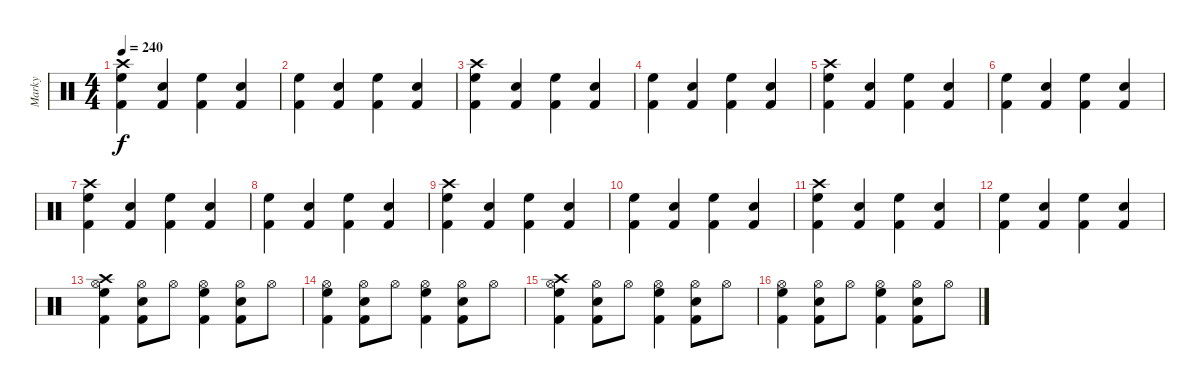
\track ("Marky" "Marky") {instrument percussion}
\staff {score}
\articulation defaults
\ts (4 4)
\tempo 240
\clef neutral
\ks c
("Crash high (hit)" "High Floor Tom (hit)" "Kick (hit) 2").4{dy f} ("Electric Snare (hit)" "Kick (hit) 2").4 ("High Floor Tom (hit)" "Kick (hit) 2").4 ("Electric Snare (hit)" "Kick (hit) 2").4 |
("High Floor Tom (hit)" "Kick (hit) 2").4 ("Electric Snare (hit)" "Kick (hit) 2").4 ("High Floor Tom (hit)" "Kick (hit) 2").4 ("Electric Snare (hit)" "Kick (hit) 2").4 |
("Crash high (hit)" "High Floor Tom (hit)" "Kick (hit) 2").4 ("Electric Snare (hit)" "Kick (hit) 2").4 ("High Floor Tom (hit)" "Kick (hit) 2").4 ("Electric Snare (hit)" "Kick (hit) 2").4 |
("High Floor Tom (hit)" "Kick (hit) 2").4 ("Electric Snare (hit)" "Kick (hit) 2").4 ("High Floor Tom (hit)" "Kick (hit) 2").4 ("Electric Snare (hit)" "Kick (hit) 2").4 |
("Crash high (hit)" "High Floor Tom (hit)" "Kick (hit) 2").4 ("Electric Snare (hit)" "Kick (hit) 2").4 ("High Floor Tom (hit)" "Kick (hit) 2").4 ("Electric Snare (hit)" "Kick (hit) 2").4 |
("High Floor Tom (hit)" "Kick (hit) 2").4 ("Electric Snare (hit)" "Kick (hit) 2").4 ("High Floor Tom (hit)" "Kick (hit) 2").4 ("Electric Snare (hit)" "Kick (hit) 2").4 |
("Crash high (hit)" "High Floor Tom (hit)" "Kick (hit) 2").4 ("Electric Snare (hit)" "Kick (hit) 2").4 ("High Floor Tom (hit)" "Kick (hit) 2").4 ("Electric Snare (hit)" "Kick (hit) 2").4 |
("High Floor Tom (hit)" "Kick (hit) 2").4 ("Electric Snare (hit)" "Kick (hit) 2").4 ("High Floor Tom (hit)" "Kick (hit) 2").4 ("Electric Snare (hit)" "Kick (hit) 2").4 |
("Crash high (hit)" "High Floor Tom (hit)" "Kick (hit) 2").4 ("Electric Snare (hit)" "Kick (hit) 2").4 ("High Floor Tom (hit)" "Kick (hit) 2").4 ("Electric Snare (hit)" "Kick (hit) 2").4 |
("High Floor Tom (hit)" "Kick (hit) 2").4 ("Electric Snare (hit)" "Kick (hit) 2").4 ("High Floor Tom (hit)" "Kick (hit) 2").4 ("Electric Snare (hit)" "Kick (hit) 2").4 |
("Crash high (hit)" "High Floor Tom (hit)" "Kick (hit) 2").4 ("Electric Snare (hit)" "Kick (hit) 2").4 ("High Floor Tom (hit)" "Kick (hit) 2").4 ("Electric Snare (hit)" "Kick (hit) 2").4 |
("High Floor Tom (hit)" "Kick (hit) 2").4 ("Electric Snare (hit)" "Kick (hit) 2").4 ("High Floor Tom (hit)" "Kick (hit) 2").4 ("Electric Snare (hit)" "Kick (hit) 2").4 |
("Crash high (hit)" "Hi-Hat (open)" "High Floor Tom (hit)" "Kick (hit) 2").4 ("Hi-Hat (open)" "Electric Snare (hit)" "Kick (hit) 2").8 "Hi-Hat (open)".8 ("Hi-Hat (open)" "High Floor Tom (hit)" "Kick (hit) 2").4 ("Hi-Hat (open)" "Electric Snare (hit)" "Kick (hit) 2").8 "Hi-Hat (open)".8 |
("Hi-Hat (open)" "High Floor Tom (hit)" "Kick (hit) 2").4 ("Hi-Hat (open)" "Electric Snare (hit)" "Kick (hit) 2").8 "Hi-Hat (open)".8 ("Hi-Hat (open)" "High Floor Tom (hit)" "Kick (hit) 2").4 ("Hi-Hat (open)" "Electric Snare (hit)" "Kick (hit) 2").8 "Hi-Hat (open)".8 |
("Crash high (hit)" "Hi-Hat (open)" "High Floor Tom (hit)" "Kick (hit) 2").4 ("Hi-Hat (open)" "Electric Snare (hit)" "Kick (hit) 2").8 "Hi-Hat (open)".8 ("Hi-Hat (open)" "High Floor Tom (hit)" "Kick (hit) 2").4 ("Hi-Hat (open)" "Electric Snare (hit)" "Kick (hit) 2").8 "Hi-Hat (open)".8 |
("Hi-Hat (open)" "High Floor Tom (hit)" "Kick (hit) 2").4 ("Hi-Hat (open)" "Electric Snare (hit)" "Kick (hit) 2").8 "Hi-Hat (open)".8 ("Hi-Hat (open)" "High Floor Tom (hit)" "Kick (hit) 2").4 ("Hi-Hat (open)" "Electric Snare (hit)" "Kick (hit) 2").8 "Hi-Hat (open)".8
